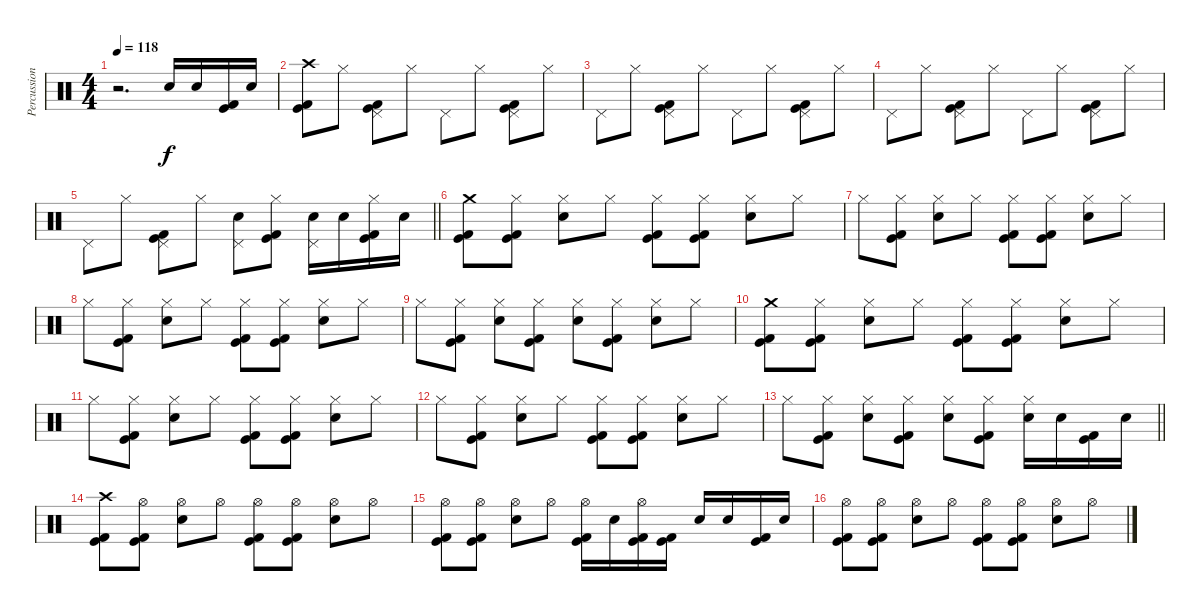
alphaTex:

\track ("Percussion" "Percussion") {instrument percussion}
\staff {score}
\articulation defaults
\ts (4 4)
\tempo 118
\clef neutral
\ks c
r.2{d dy f} "Electric Snare (hit)".16 "Electric Snare (hit)".16 ("Kick (hit)" "Kick (hit) 2").16 "Electric Snare (hit)".16 |
("Crash high (hit)" "Kick (hit)" "Kick (hit) 2").8 "Hi-Hat (closed)".8 ("Pedal Hi-Hat (hit)" "Kick (hit)" "Kick (hit) 2").8 "Hi-Hat (closed)".8 "Pedal Hi-Hat (hit)".8 "Hi-Hat (closed)".8 ("Pedal Hi-Hat (hit)" "Kick (hit)" "Kick (hit) 2").8 "Hi-Hat (closed)".8 |
"Pedal Hi-Hat (hit)".8 "Hi-Hat (closed)".8 ("Pedal Hi-Hat (hit)" "Kick (hit)" "Kick (hit) 2").8 "Hi-Hat (closed)".8 "Pedal Hi-Hat (hit)".8 "Hi-Hat (closed)".8 ("Pedal Hi-Hat (hit)" "Kick (hit)" "Kick (hit) 2").8 "Hi-Hat (closed)".8 |
"Pedal Hi-Hat (hit)".8 "Hi-Hat (closed)".8 ("Pedal Hi-Hat (hit)" "Kick (hit)" "Kick (hit) 2").8 "Hi-Hat (closed)".8 "Pedal Hi-Hat (hit)".8 "Hi-Hat (closed)".8 ("Pedal Hi-Hat (hit)" "Kick (hit)" "Kick (hit) 2").8 "Hi-Hat (closed)".8 |
\barLineRight lightlight "Pedal Hi-Hat (hit)".8 "Hi-Hat (closed)".8
("Pedal Hi-Hat (hit)" "Kick (hit)" "Kick (hit) 2").8 "Hi-Hat (closed)".8 ("Pedal Hi-Hat (hit)" "Electric Snare (hit)").8 ("Hi-Hat (closed)" "Kick (hit)" "Kick (hit) 2").8 ("Pedal Hi-Hat (hit)" "Electric Snare (hit)").16 "Electric Snare (hit)".16 ("Hi-Hat (closed)" "Kick (hit)" "Kick (hit) 2").16 "Electric Snare (hit)".16 |
\section ("" "")
("Crash medium (hit)" "Kick (hit)" "Kick (hit) 2").8 ("Hi-Hat (closed)" "Kick (hit)" "Kick (hit) 2").8 ("Hi-Hat (closed)" "Electric Snare (hit)").8 "Hi-Hat (closed)".8 ("Hi-Hat (closed)" "Kick (hit)" "Kick (hit) 2").8 ("Hi-Hat (closed)" "Kick (hit)" "Kick (hit) 2").8 ("Hi-Hat (closed)" "Electric Snare (hit)").8 "Hi-Hat (closed)".8 |
"Hi-Hat (closed)".8 ("Hi-Hat (closed)" "Kick (hit)" "Kick (hit) 2").8 ("Hi-Hat (closed)" "Electric Snare (hit)").8 "Hi-Hat (closed)".8 ("Hi-Hat (closed)" "Kick (hit)" "Kick (hit) 2").8 ("Hi-Hat (closed)" "Kick (hit)" "Kick (hit) 2").8 ("Hi-Hat (closed)" "Electric Snare (hit)").8 "Hi-Hat (closed)".8 |
"Hi-Hat (closed)".8 ("Hi-Hat (closed)" "Kick (hit)" "Kick (hit) 2").8 ("Hi-Hat (closed)" "Electric Snare (hit)").8 "Hi-Hat (closed)".8 ("Hi-Hat (closed)" "Kick (hit)" "Kick (hit) 2").8 ("Hi-Hat (closed)" "Kick (hit)" "Kick (hit) 2").8 ("Hi-Hat (closed)" "Electric Snare (hit)").8 "Hi-Hat (closed)".8 |
"Hi-Hat (closed)".8 ("Hi-Hat (closed)" "Kick (hit)" "Kick (hit) 2").8 ("Hi-Hat (closed)" "Electric Snare (hit)").8 ("Hi-Hat (closed)" "Kick (hit)" "Kick (hit) 2").8 ("Hi-Hat (closed)" "Electric Snare (hit)").8 ("Hi-Hat (closed)" "Kick (hit)" "Kick (hit) 2").8 ("Hi-Hat (closed)" "Electric Snare (hit)").8 "Hi-Hat (closed)".8 |
("Crash medium (hit)" "Kick (hit)" "Kick (hit) 2").8 ("Hi-Hat (closed)" "Kick (hit)" "Kick (hit) 2").8 ("Hi-Hat (closed)" "Electric Snare (hit)").8 "Hi-Hat (closed)".8 ("Hi-Hat (closed)" "Kick (hit)" "Kick (hit) 2").8 ("Hi-Hat (closed)" "Kick (hit)" "Kick (hit) 2").8 ("Hi-Hat (closed)" "Electric Snare (hit)").8 "Hi-Hat (closed)".8 |
"Hi-Hat (closed)".8 ("Hi-Hat (closed)" "Kick (hit)" "Kick (hit) 2").8 ("Hi-Hat (closed)" "Electric Snare (hit)").8 "Hi-Hat (closed)".8 ("Hi-Hat (closed)" "Kick (hit)" "Kick (hit) 2").8 ("Hi-Hat (closed)" "Kick (hit)" "Kick (hit) 2").8 ("Hi-Hat (closed)" "Electric Snare (hit)").8 "Hi-Hat (closed)".8 |
"Hi-Hat (closed)".8 ("Hi-Hat (closed)" "Kick (hit)" "Kick (hit) 2").8 ("Hi-Hat (closed)" "Electric Snare (hit)").8 "Hi-Hat (closed)".8 ("Hi-Hat (closed)" "Kick (hit)" "Kick (hit) 2").8 ("Hi-Hat (closed)" "Kick (hit)" "Kick (hit) 2").8 ("Hi-Hat (closed)" "Electric Snare (hit)").8 "Hi-Hat (closed)".8 |
\barLineRight lightlight "Hi-Hat (closed)".8
("Hi-Hat (closed)" "Kick (hit)" "Kick (hit) 2").8 ("Hi-Hat (closed)" "Electric Snare (hit)").8 ("Hi-Hat (closed)" "Kick (hit)" "Kick (hit) 2").8 ("Hi-Hat (closed)" "Electric Snare (hit)").8 ("Hi-Hat (closed)" "Kick (hit)" "Kick (hit) 2").8 ("Hi-Hat (closed)" "Electric Snare (hit)").16 "Electric Snare (hit)".16 ("Kick (hit)" "Kick (hit) 2").16 "Electric Snare (hit)".16 |
\section ("" "")
("Crash high (hit)" "Kick (hit)" "Kick (hit) 2").8 ("Hi-Hat (open)" "Kick (hit)" "Kick (hit) 2").8 ("Hi-Hat (open)" "Electric Snare (hit)").8 "Hi-Hat (open)".8 ("Hi-Hat (open)" "Kick (hit)" "Kick (hit) 2").8 ("Hi-Hat (open)" "Kick (hit)" "Kick (hit) 2").8 ("Hi-Hat (open)" "Electric Snare (hit)").8 "Hi-Hat (open)".8 |
("Hi-Hat (open)" "Kick (hit)" "Kick (hit) 2").8 ("Hi-Hat (open)" "Kick (hit)" "Kick (hit) 2").8 ("Hi-Hat (open)" "Electric Snare (hit)").8 "Hi-Hat (open)".8 ("Hi-Hat (open)" "Kick (hit)" "Kick (hit) 2").16 "Electric Snare (hit)".16 ("Hi-Hat (open)" "Kick (hit)" "Kick (hit) 2").16 ("Kick (hit)" "Kick (hit) 2").16 "Electric Snare (hit)".16 "Electric Snare (hit)".16 ("Kick (hit)" "Kick (hit) 2").16 "Electric Snare (hit)".16 |
("Hi-Hat (open)" "Kick (hit)" "Kick (hit) 2").8 ("Hi-Hat (open)" "Kick (hit)" "Kick (hit) 2").8 ("Hi-Hat (open)" "Electric Snare (hit)").8 "Hi-Hat (open)".8 ("Hi-Hat (open)" "Kick (hit)" "Kick (hit) 2").8 ("Hi-Hat (open)" "Kick (hit)" "Kick (hit) 2").8 ("Hi-Hat (open)" "Electric Snare (hit)").8 "Hi-Hat (open)".8
